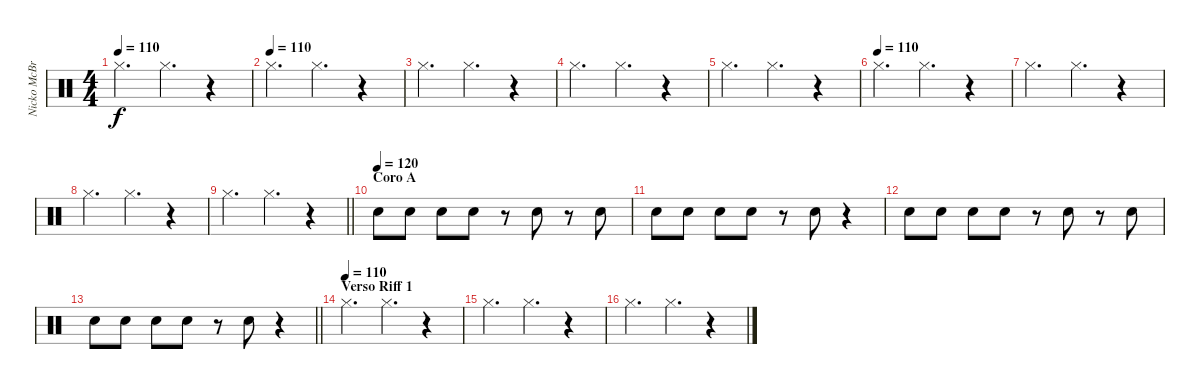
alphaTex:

\track ("Nicko McBrain" "Nicko McBr") {instrument percussion}
\staff {score}
\articulation defaults
\ts (4 4)
\tempo 110
\clef neutral
\ks c "Hi-Hat (closed)".4{d dy f} "Hi-Hat (closed)".4{d}
r.4 |
\tempo (110)
"Hi-Hat (closed)".4{d} "Hi-Hat (closed)".4{d} r.4 |
"Hi-Hat (closed)".4{d} "Hi-Hat (closed)".4{d} r.4 |
"Hi-Hat (closed)".4{d} "Hi-Hat (closed)".4{d} r.4 |
"Hi-Hat (closed)".4{d} "Hi-Hat (closed)".4{d} r.4 |
\tempo (110)
"Hi-Hat (closed)".4{d} "Hi-Hat (closed)".4{d} r.4 |
"Hi-Hat (closed)".4{d} "Hi-Hat (closed)".4{d} r.4 |
"Hi-Hat (closed)".4{d} "Hi-Hat (closed)".4{d} r.4 |
\barLineRight lightlight "Hi-Hat (closed)".4{d} "Hi-Hat (closed)".4{d}
r.4 |
\section ("" "Coro A")
\tempo (120)
"Snare (hit) 2".8 "Snare (hit) 2".8 "Snare (hit) 2".8 "Snare (hit) 2".8 r.8 "Snare (hit) 2".8 r.8 "Snare (hit) 2".8 |
"Snare (hit) 2".8 "Snare (hit) 2".8 "Snare (hit) 2".8 "Snare (hit) 2".8 r.8 "Snare (hit) 2".8 r.4 |
"Snare (hit) 2".8 "Snare (hit) 2".8 "Snare (hit) 2".8 "Snare (hit) 2".8 r.8 "Snare (hit) 2".8 r.8 "Snare (hit) 2".8 |
\barLineRight lightlight "Snare (hit) 2".8 "Snare (hit) 2".8 "Snare (hit) 2".8 "Snare (hit) 2".8
r.8 "Snare (hit) 2".8 r.4 |
\section ("" "Verso Riff 1")
\tempo (110)
"Hi-Hat (closed)".4{d} "Hi-Hat (closed)".4{d} r.4 |
"Hi-Hat (closed)".4{d} "Hi-Hat (closed)".4{d} r.4 |
"Hi-Hat (closed)".4{d} "Hi-Hat (closed)".4{d} r.4
